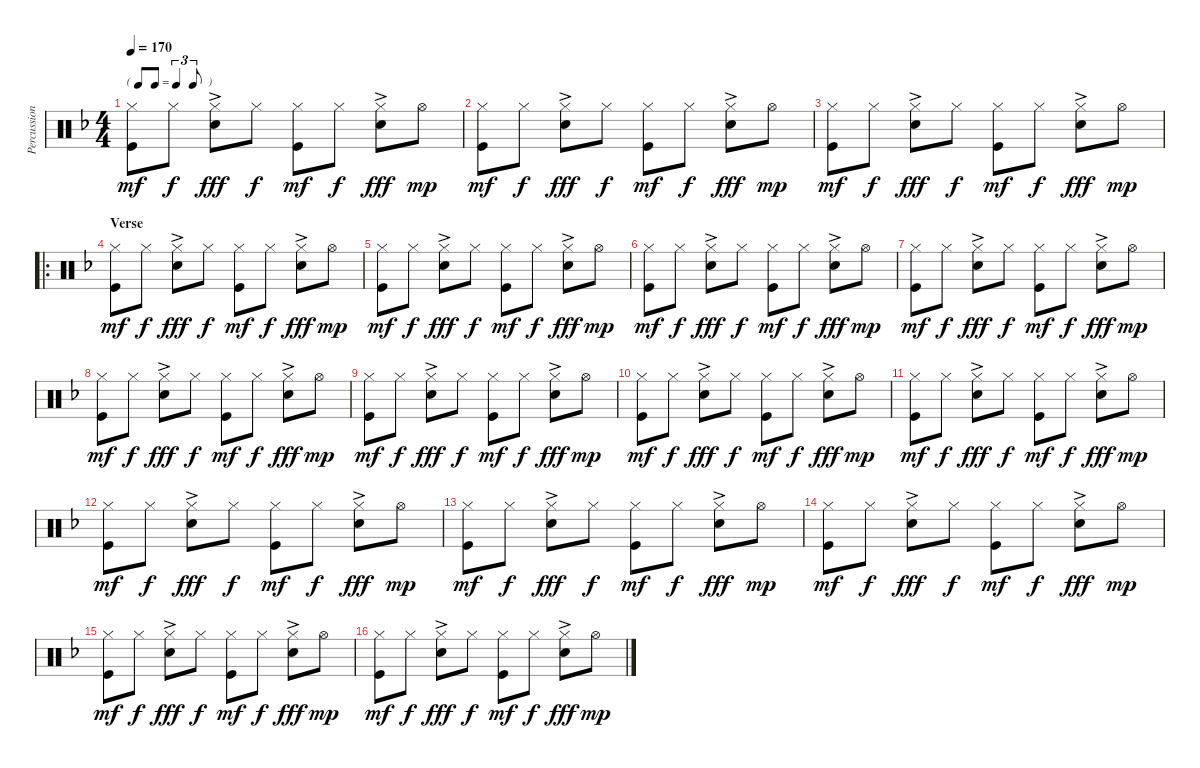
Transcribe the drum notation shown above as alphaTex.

\track ("Percussion" "Percussion") {instrument percussion}
\staff {score}
\articulation defaults
\ts (4 4)
\tf triplet8th
\tempo 170
\clef neutral
\ks f
("Hi-Hat (closed)" "Kick (hit)").8{dy mf} "Hi-Hat (closed)".8{dy f} ("Hi-Hat (closed)" "Snare (hit) 2"{ac}).8{dy fff} "Hi-Hat (closed)".8{dy f} ("Hi-Hat (closed)" "Kick (hit)").8{dy mf} "Hi-Hat (closed)".8{dy f} ("Hi-Hat (closed)" "Snare (hit) 2"{ac}).8{dy fff} "Hi-Hat (open)".8{dy mp} |
("Hi-Hat (closed)" "Kick (hit)").8{dy mf} "Hi-Hat (closed)".8{dy f} ("Hi-Hat (closed)" "Snare (hit) 2"{ac}).8{dy fff} "Hi-Hat (closed)".8{dy f} ("Hi-Hat (closed)" "Kick (hit)").8{dy mf} "Hi-Hat (closed)".8{dy f} ("Hi-Hat (closed)" "Snare (hit) 2"{ac}).8{dy fff} "Hi-Hat (open)".8{dy mp} |
("Hi-Hat (closed)" "Kick (hit)").8{dy mf} "Hi-Hat (closed)".8{dy f} ("Hi-Hat (closed)" "Snare (hit) 2"{ac}).8{dy fff} "Hi-Hat (closed)".8{dy f} ("Hi-Hat (closed)" "Kick (hit)").8{dy mf} "Hi-Hat (closed)".8{dy f} ("Hi-Hat (closed)" "Snare (hit) 2"{ac}).8{dy fff} "Hi-Hat (open)".8{dy mp} |
\ro
\section ("" "Verse")
("Hi-Hat (closed)" "Kick (hit)").8{dy mf} "Hi-Hat (closed)".8{dy f} ("Hi-Hat (closed)" "Snare (hit) 2"{ac}).8{dy fff} "Hi-Hat (closed)".8{dy f} ("Hi-Hat (closed)" "Kick (hit)").8{dy mf} "Hi-Hat (closed)".8{dy f} ("Hi-Hat (closed)" "Snare (hit) 2"{ac}).8{dy fff} "Hi-Hat (open)".8{dy mp} |
("Hi-Hat (closed)" "Kick (hit)").8{dy mf} "Hi-Hat (closed)".8{dy f} ("Hi-Hat (closed)" "Snare (hit) 2"{ac}).8{dy fff} "Hi-Hat (closed)".8{dy f} ("Hi-Hat (closed)" "Kick (hit)").8{dy mf} "Hi-Hat (closed)".8{dy f} ("Hi-Hat (closed)" "Snare (hit) 2"{ac}).8{dy fff} "Hi-Hat (open)".8{dy mp} |
("Hi-Hat (closed)" "Kick (hit)").8{dy mf} "Hi-Hat (closed)".8{dy f} ("Hi-Hat (closed)" "Snare (hit) 2"{ac}).8{dy fff} "Hi-Hat (closed)".8{dy f} ("Hi-Hat (closed)" "Kick (hit)").8{dy mf} "Hi-Hat (closed)".8{dy f} ("Hi-Hat (closed)" "Snare (hit) 2"{ac}).8{dy fff} "Hi-Hat (open)".8{dy mp} |
("Hi-Hat (closed)" "Kick (hit)").8{dy mf} "Hi-Hat (closed)".8{dy f} ("Hi-Hat (closed)" "Snare (hit) 2"{ac}).8{dy fff} "Hi-Hat (closed)".8{dy f} ("Hi-Hat (closed)" "Kick (hit)").8{dy mf} "Hi-Hat (closed)".8{dy f} ("Hi-Hat (closed)" "Snare (hit) 2"{ac}).8{dy fff} "Hi-Hat (open)".8{dy mp} |
("Hi-Hat (closed)" "Kick (hit)").8{dy mf} "Hi-Hat (closed)".8{dy f} ("Hi-Hat (closed)" "Snare (hit) 2"{ac}).8{dy fff} "Hi-Hat (closed)".8{dy f} ("Hi-Hat (closed)" "Kick (hit)").8{dy mf} "Hi-Hat (closed)".8{dy f} ("Hi-Hat (closed)" "Snare (hit) 2"{ac}).8{dy fff} "Hi-Hat (open)".8{dy mp} |
("Hi-Hat (closed)" "Kick (hit)").8{dy mf} "Hi-Hat (closed)".8{dy f} ("Hi-Hat (closed)" "Snare (hit) 2"{ac}).8{dy fff} "Hi-Hat (closed)".8{dy f} ("Hi-Hat (closed)" "Kick (hit)").8{dy mf} "Hi-Hat (closed)".8{dy f} ("Hi-Hat (closed)" "Snare (hit) 2"{ac}).8{dy fff} "Hi-Hat (open)".8{dy mp} |
("Hi-Hat (closed)" "Kick (hit)").8{dy mf} "Hi-Hat (closed)".8{dy f} ("Hi-Hat (closed)" "Snare (hit) 2"{ac}).8{dy fff} "Hi-Hat (closed)".8{dy f} ("Hi-Hat (closed)" "Kick (hit)").8{dy mf} "Hi-Hat (closed)".8{dy f} ("Hi-Hat (closed)" "Snare (hit) 2"{ac}).8{dy fff} "Hi-Hat (open)".8{dy mp} |
("Hi-Hat (closed)" "Kick (hit)").8{dy mf} "Hi-Hat (closed)".8{dy f} ("Hi-Hat (closed)" "Snare (hit) 2"{ac}).8{dy fff} "Hi-Hat (closed)".8{dy f} ("Hi-Hat (closed)" "Kick (hit)").8{dy mf} "Hi-Hat (closed)".8{dy f} ("Hi-Hat (closed)" "Snare (hit) 2"{ac}).8{dy fff} "Hi-Hat (open)".8{dy mp} |
("Hi-Hat (closed)" "Kick (hit)").8{dy mf} "Hi-Hat (closed)".8{dy f} ("Hi-Hat (closed)" "Snare (hit) 2"{ac}).8{dy fff} "Hi-Hat (closed)".8{dy f} ("Hi-Hat (closed)" "Kick (hit)").8{dy mf} "Hi-Hat (closed)".8{dy f} ("Hi-Hat (closed)" "Snare (hit) 2"{ac}).8{dy fff} "Hi-Hat (open)".8{dy mp} |
("Hi-Hat (closed)" "Kick (hit)").8{dy mf} "Hi-Hat (closed)".8{dy f} ("Hi-Hat (closed)" "Snare (hit) 2"{ac}).8{dy fff} "Hi-Hat (closed)".8{dy f} ("Hi-Hat (closed)" "Kick (hit)").8{dy mf} "Hi-Hat (closed)".8{dy f} ("Hi-Hat (closed)" "Snare (hit) 2"{ac}).8{dy fff} "Hi-Hat (open)".8{dy mp} |
("Hi-Hat (closed)" "Kick (hit)").8{dy mf} "Hi-Hat (closed)".8{dy f} ("Hi-Hat (closed)" "Snare (hit) 2"{ac}).8{dy fff} "Hi-Hat (closed)".8{dy f} ("Hi-Hat (closed)" "Kick (hit)").8{dy mf} "Hi-Hat (closed)".8{dy f} ("Hi-Hat (closed)" "Snare (hit) 2"{ac}).8{dy fff} "Hi-Hat (open)".8{dy mp} |
("Hi-Hat (closed)" "Kick (hit)").8{dy mf} "Hi-Hat (closed)".8{dy f} ("Hi-Hat (closed)" "Snare (hit) 2"{ac}).8{dy fff} "Hi-Hat (closed)".8{dy f} ("Hi-Hat (closed)" "Kick (hit)").8{dy mf} "Hi-Hat (closed)".8{dy f} ("Hi-Hat (closed)" "Snare (hit) 2"{ac}).8{dy fff} "Hi-Hat (open)".8{dy mp} |
("Hi-Hat (closed)" "Kick (hit)").8{dy mf} "Hi-Hat (closed)".8{dy f} ("Hi-Hat (closed)" "Snare (hit) 2"{ac}).8{dy fff} "Hi-Hat (closed)".8{dy f} ("Hi-Hat (closed)" "Kick (hit)").8{dy mf} "Hi-Hat (closed)".8{dy f} ("Hi-Hat (closed)" "Snare (hit) 2"{ac}).8{dy fff} "Hi-Hat (open)".8{dy mp}
